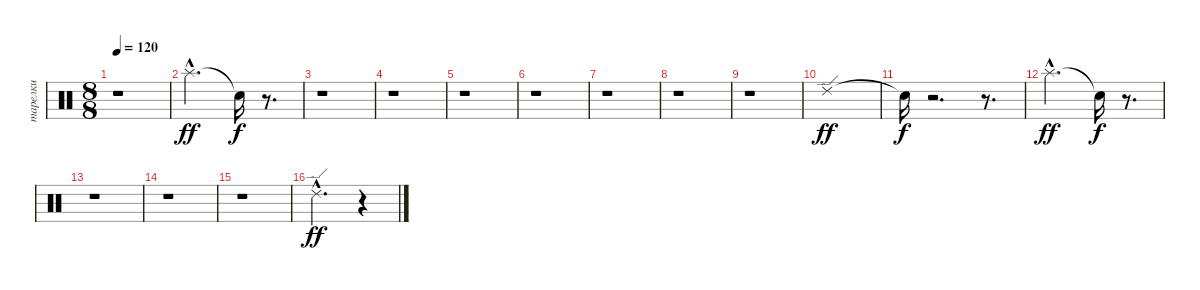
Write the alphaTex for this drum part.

\track ("тарелки" "тарелки") {instrument percussion}
\staff {score}
\articulation defaults
\ts (8 8)
\tempo 120
\clef neutral
\ks c
r.1{dy f} |
"Splash (hit)"{hac}.2{d dy ff} "Snare (hit)"{t}.16{dy f} r.8{d} |
r.1 |
r.1 |
r.1 |
r.1 |
r.1 |
r.1 |
r.1 |
"Ride (edge) 2".1{dy ff} |
"Snare (hit)"{t}.16{dy f} r.2{d} r.8{d} |
"Splash (hit)"{hac}.2{d dy ff} "Snare (hit)"{t}.16{dy f} r.8{d} |
r.1 |
r.1 |
r.1 |
"Ride (edge) 2"{hac}.2{d dy ff} r.4
